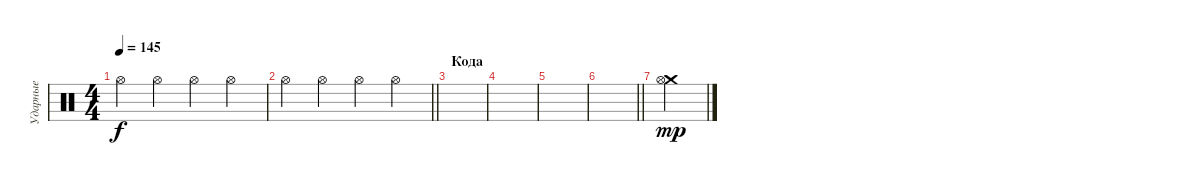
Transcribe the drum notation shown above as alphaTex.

\track ("Ударные" "Ударные") {instrument percussion}
\staff {score}
\articulation defaults
\ts (4 4)
\tempo 145
\clef neutral
\ks c "Hi-Hat (open)".4{dy f} "Hi-Hat (open)".4 "Hi-Hat (open)".4 "Hi-Hat (open)".4
|
\barLineRight lightlight "Hi-Hat (open)".4 "Hi-Hat (open)".4 "Hi-Hat (open)".4 "Hi-Hat (open)".4
|
\section ("" "Кода")
|
|
|
\barLineRight lightlight
|
("Crash medium (hit)" "Hi-Hat (open)").4{dy mp}
